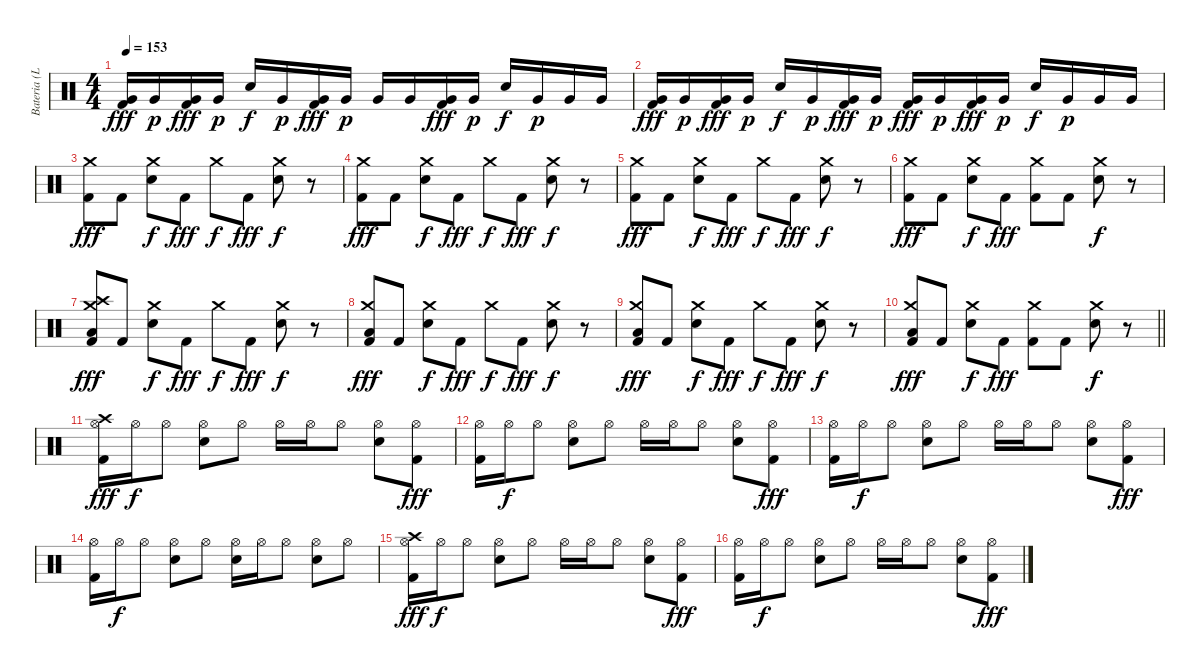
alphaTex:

\track ("Bateria (Lars)" "Bateria (L") {instrument percussion}
\staff {score}
\articulation defaults
\ts (4 4)
\tempo 153
\clef neutral
\ks c
("Very Low Tom (hit)" "Kick (hit) 2").16{dy fff} "Very Low Tom (hit)".16{dy p} ("Very Low Tom (hit)" "Kick (hit) 2").16{dy fff} "Very Low Tom (hit)".16{dy p} "Electric Snare (hit)".16{dy f} "Very Low Tom (hit)".16{dy p} ("Very Low Tom (hit)" "Kick (hit) 2").16{dy fff} "Very Low Tom (hit)".16{dy p} "Very Low Tom (hit)".16 "Very Low Tom (hit)".16 ("Very Low Tom (hit)" "Kick (hit) 2").16{dy fff} "Very Low Tom (hit)".16{dy p} "Electric Snare (hit)".16{dy f} "Very Low Tom (hit)".16{dy p} "Very Low Tom (hit)".16 "Very Low Tom (hit)".16 |
("Very Low Tom (hit)" "Kick (hit) 2").16{dy fff} "Very Low Tom (hit)".16{dy p} ("Very Low Tom (hit)" "Kick (hit) 2").16{dy fff} "Very Low Tom (hit)".16{dy p} "Electric Snare (hit)".16{dy f} "Very Low Tom (hit)".16{dy p} ("Very Low Tom (hit)" "Kick (hit) 2").16{dy fff} "Very Low Tom (hit)".16{dy p} ("Very Low Tom (hit)" "Kick (hit) 2").16{dy fff} "Very Low Tom (hit)".16{dy p} ("Very Low Tom (hit)" "Kick (hit) 2").16{dy fff} "Very Low Tom (hit)".16{dy p} "Electric Snare (hit)".16{dy f} "Very Low Tom (hit)".16{dy p} "Very Low Tom (hit)".16 "Very Low Tom (hit)".16 |
("Crash medium (hit)" "Kick (hit) 2").8{dy fff} "Kick (hit) 2".8 ("Crash medium (hit)" "Electric Snare (hit)").8{dy f} "Kick (hit) 2".8{dy fff} "Crash medium (hit)".8{dy f} "Kick (hit) 2".8{dy fff} ("Crash medium (hit)" "Electric Snare (hit)").8{dy f} r.8 |
("Crash medium (hit)" "Kick (hit) 2").8{dy fff} "Kick (hit) 2".8 ("Crash medium (hit)" "Electric Snare (hit)").8{dy f} "Kick (hit) 2".8{dy fff} "Crash medium (hit)".8{dy f} "Kick (hit) 2".8{dy fff} ("Crash medium (hit)" "Electric Snare (hit)").8{dy f} r.8 |
("Crash medium (hit)" "Kick (hit) 2").8{dy fff} "Kick (hit) 2".8 ("Crash medium (hit)" "Electric Snare (hit)").8{dy f} "Kick (hit) 2".8{dy fff} "Crash medium (hit)".8{dy f} "Kick (hit) 2".8{dy fff} ("Crash medium (hit)" "Electric Snare (hit)").8{dy f} r.8 |
("Crash medium (hit)" "Kick (hit) 2").8{dy fff} "Kick (hit) 2".8 ("Crash medium (hit)" "Electric Snare (hit)").8{dy f} "Kick (hit) 2".8{dy fff} ("Crash medium (hit)" "Kick (hit) 2").8 "Kick (hit) 2".8 ("Crash medium (hit)" "Electric Snare (hit)").8{dy f} r.8 |
("Crash medium (hit)" "Crash high (hit)" "Low Floor Tom (hit)" "Kick (hit) 2").8{dy fff} "Kick (hit) 2".8 ("Crash medium (hit)" "Electric Snare (hit)").8{dy f} "Kick (hit) 2".8{dy fff} "Crash medium (hit)".8{dy f} "Kick (hit) 2".8{dy fff} ("Crash medium (hit)" "Electric Snare (hit)").8{dy f} r.8 |
("Crash medium (hit)" "Low Floor Tom (hit)" "Kick (hit) 2").8{dy fff} "Kick (hit) 2".8 ("Crash medium (hit)" "Electric Snare (hit)").8{dy f} "Kick (hit) 2".8{dy fff} "Crash medium (hit)".8{dy f} "Kick (hit) 2".8{dy fff} ("Crash medium (hit)" "Electric Snare (hit)").8{dy f} r.8 |
("Crash medium (hit)" "Low Floor Tom (hit)" "Kick (hit) 2").8{dy fff} "Kick (hit) 2".8 ("Crash medium (hit)" "Electric Snare (hit)").8{dy f} "Kick (hit) 2".8{dy fff} "Crash medium (hit)".8{dy f} "Kick (hit) 2".8{dy fff} ("Crash medium (hit)" "Electric Snare (hit)").8{dy f} r.8 |
\barLineRight lightlight
("Crash medium (hit)" "Low Floor Tom (hit)" "Kick (hit) 2").8{dy fff} "Kick (hit) 2".8 ("Crash medium (hit)" "Electric Snare (hit)").8{dy f} "Kick (hit) 2".8{dy fff} ("Crash medium (hit)" "Kick (hit) 2").8 "Kick (hit) 2".8 ("Crash medium (hit)" "Electric Snare (hit)").8{dy f} r.8 |
("Crash high (hit)" "Hi-Hat (open)" "Kick (hit) 2").16{dy fff} "Hi-Hat (open)".16{dy f} "Hi-Hat (open)".8 ("Hi-Hat (open)" "Electric Snare (hit)").8 "Hi-Hat (open)".8 "Hi-Hat (open)".16 "Hi-Hat (open)".16 "Hi-Hat (open)".8 ("Hi-Hat (open)" "Electric Snare (hit)").8 ("Hi-Hat (open)" "Kick (hit) 2").8{dy fff} |
("Hi-Hat (open)" "Kick (hit) 2").16 "Hi-Hat (open)".16{dy f} "Hi-Hat (open)".8 ("Hi-Hat (open)" "Electric Snare (hit)").8 "Hi-Hat (open)".8 "Hi-Hat (open)".16 "Hi-Hat (open)".16 "Hi-Hat (open)".8 ("Hi-Hat (open)" "Electric Snare (hit)").8 ("Hi-Hat (open)" "Kick (hit) 2").8{dy fff} |
("Hi-Hat (open)" "Kick (hit) 2").16 "Hi-Hat (open)".16{dy f} "Hi-Hat (open)".8 ("Hi-Hat (open)" "Electric Snare (hit)").8 "Hi-Hat (open)".8 "Hi-Hat (open)".16 "Hi-Hat (open)".16 "Hi-Hat (open)".8 ("Hi-Hat (open)" "Electric Snare (hit)").8 ("Hi-Hat (open)" "Kick (hit) 2").8{dy fff} |
("Hi-Hat (open)" "Kick (hit) 2").16 "Hi-Hat (open)".16{dy f} "Hi-Hat (open)".8 ("Hi-Hat (open)" "Electric Snare (hit)").8 "Hi-Hat (open)".8 ("Hi-Hat (open)" "Electric Snare (hit)").16 "Hi-Hat (open)".16 "Hi-Hat (open)".8 ("Hi-Hat (open)" "Electric Snare (hit)").8 "Hi-Hat (open)".8 |
("Crash high (hit)" "Hi-Hat (open)" "Kick (hit) 2").16{dy fff} "Hi-Hat (open)".16{dy f} "Hi-Hat (open)".8 ("Hi-Hat (open)" "Electric Snare (hit)").8 "Hi-Hat (open)".8 "Hi-Hat (open)".16 "Hi-Hat (open)".16 "Hi-Hat (open)".8 ("Hi-Hat (open)" "Electric Snare (hit)").8 ("Hi-Hat (open)" "Kick (hit) 2").8{dy fff} |
("Hi-Hat (open)" "Kick (hit) 2").16 "Hi-Hat (open)".16{dy f} "Hi-Hat (open)".8 ("Hi-Hat (open)" "Electric Snare (hit)").8 "Hi-Hat (open)".8 "Hi-Hat (open)".16 "Hi-Hat (open)".16 "Hi-Hat (open)".8 ("Hi-Hat (open)" "Electric Snare (hit)").8 ("Hi-Hat (open)" "Kick (hit) 2").8{dy fff}
